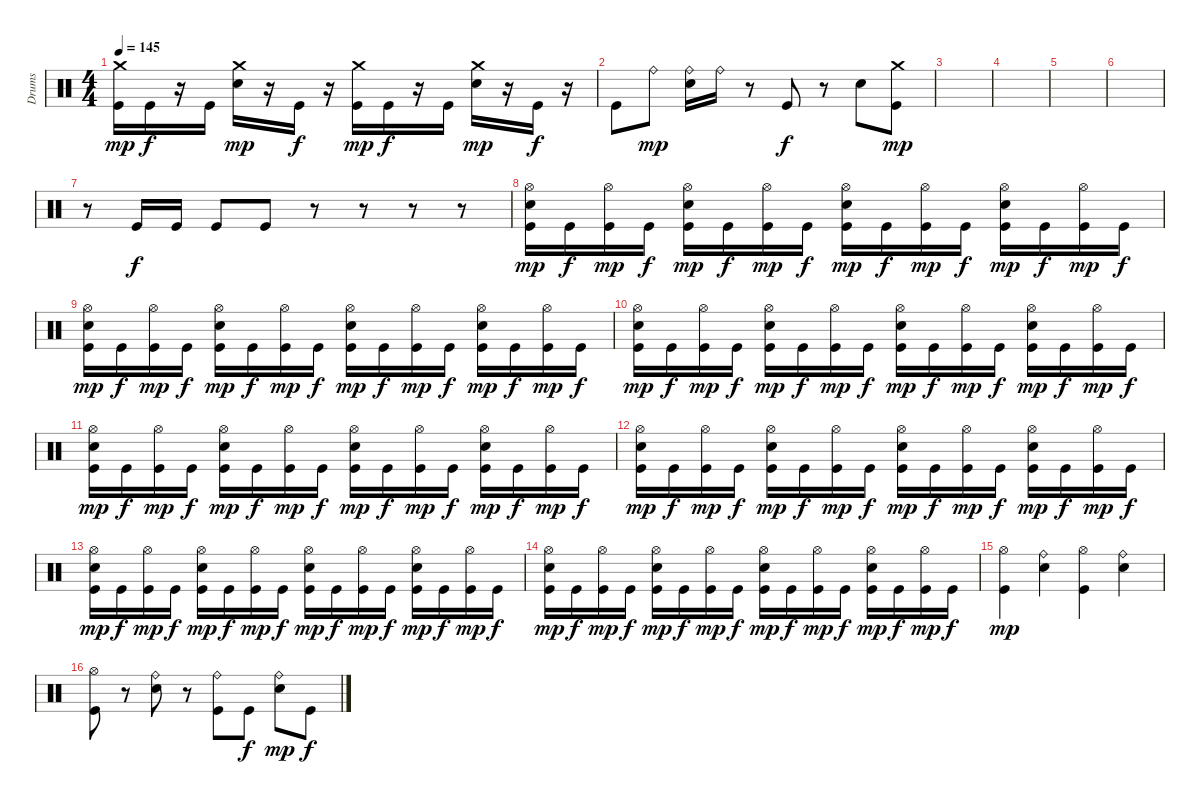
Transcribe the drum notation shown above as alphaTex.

\track ("Drums" "Drums") {instrument percussion}
\staff {score}
\articulation defaults
\ts (4 4)
\tempo 145
\clef neutral
\ks c
("Kick (hit)" "Crash medium (hit)").16{dy mp} "Kick (hit)".16{dy f} r.16 "Kick (hit)".16 ("Snare (hit) 2" "Crash medium (hit)").16{dy mp} r.16 "Kick (hit)".16{dy f} r.16 ("Kick (hit)" "Crash medium (hit)").16{dy mp} "Kick (hit)".16{dy f} r.16 "Kick (hit)".16 ("Snare (hit) 2" "Crash medium (hit)").16{dy mp} r.16 "Kick (hit)".16{dy f} r.16 |
"Kick (hit)".8 "Ride (bell)".8{dy mp} ("Snare (hit) 2" "Ride (bell)").16 "Ride (bell)".16 r.8 "Kick (hit)".8{dy f} r.8 "Snare (hit) 2".8 ("Kick (hit)" "Crash medium (hit)").8{dy mp} |
|
|
|
|
r.8 "Kick (hit)".16{dy f} "Kick (hit)".16 "Kick (hit)".8 "Kick (hit)".8 r.8 r.8 r.8 r.8 |
("Hi-Hat (open)" "Snare (hit) 2" "Kick (hit)").16{dy mp} "Kick (hit)".16{dy f} ("Kick (hit)" "Hi-Hat (open)").16{dy mp} "Kick (hit)".16{dy f} ("Hi-Hat (open)" "Snare (hit) 2" "Kick (hit)").16{dy mp} "Kick (hit)".16{dy f} ("Kick (hit)" "Hi-Hat (open)").16{dy mp} "Kick (hit)".16{dy f} ("Hi-Hat (open)" "Snare (hit) 2" "Kick (hit)").16{dy mp} "Kick (hit)".16{dy f} ("Kick (hit)" "Hi-Hat (open)").16{dy mp} "Kick (hit)".16{dy f} ("Hi-Hat (open)" "Snare (hit) 2" "Kick (hit)").16{dy mp} "Kick (hit)".16{dy f} ("Kick (hit)" "Hi-Hat (open)").16{dy mp} "Kick (hit)".16{dy f} |
("Hi-Hat (open)" "Snare (hit) 2" "Kick (hit)").16{dy mp} "Kick (hit)".16{dy f} ("Kick (hit)" "Hi-Hat (open)").16{dy mp} "Kick (hit)".16{dy f} ("Hi-Hat (open)" "Snare (hit) 2" "Kick (hit)").16{dy mp} "Kick (hit)".16{dy f} ("Kick (hit)" "Hi-Hat (open)").16{dy mp} "Kick (hit)".16{dy f} ("Hi-Hat (open)" "Snare (hit) 2" "Kick (hit)").16{dy mp} "Kick (hit)".16{dy f} ("Kick (hit)" "Hi-Hat (open)").16{dy mp} "Kick (hit)".16{dy f} ("Hi-Hat (open)" "Snare (hit) 2" "Kick (hit)").16{dy mp} "Kick (hit)".16{dy f} ("Kick (hit)" "Hi-Hat (open)").16{dy mp} "Kick (hit)".16{dy f} |
("Hi-Hat (open)" "Snare (hit) 2" "Kick (hit)").16{dy mp} "Kick (hit)".16{dy f} ("Kick (hit)" "Hi-Hat (open)").16{dy mp} "Kick (hit)".16{dy f} ("Hi-Hat (open)" "Snare (hit) 2" "Kick (hit)").16{dy mp} "Kick (hit)".16{dy f} ("Kick (hit)" "Hi-Hat (open)").16{dy mp} "Kick (hit)".16{dy f} ("Hi-Hat (open)" "Snare (hit) 2" "Kick (hit)").16{dy mp} "Kick (hit)".16{dy f} ("Kick (hit)" "Hi-Hat (open)").16{dy mp} "Kick (hit)".16{dy f} ("Hi-Hat (open)" "Snare (hit) 2" "Kick (hit)").16{dy mp} "Kick (hit)".16{dy f} ("Kick (hit)" "Hi-Hat (open)").16{dy mp} "Kick (hit)".16{dy f} |
("Hi-Hat (open)" "Snare (hit) 2" "Kick (hit)").16{dy mp} "Kick (hit)".16{dy f} ("Kick (hit)" "Hi-Hat (open)").16{dy mp} "Kick (hit)".16{dy f} ("Hi-Hat (open)" "Snare (hit) 2" "Kick (hit)").16{dy mp} "Kick (hit)".16{dy f} ("Kick (hit)" "Hi-Hat (open)").16{dy mp} "Kick (hit)".16{dy f} ("Hi-Hat (open)" "Snare (hit) 2" "Kick (hit)").16{dy mp} "Kick (hit)".16{dy f} ("Kick (hit)" "Hi-Hat (open)").16{dy mp} "Kick (hit)".16{dy f} ("Hi-Hat (open)" "Snare (hit) 2" "Kick (hit)").16{dy mp} "Kick (hit)".16{dy f} ("Kick (hit)" "Hi-Hat (open)").16{dy mp} "Kick (hit)".16{dy f} |
("Hi-Hat (open)" "Snare (hit) 2" "Kick (hit)").16{dy mp} "Kick (hit)".16{dy f} ("Kick (hit)" "Hi-Hat (open)").16{dy mp} "Kick (hit)".16{dy f} ("Hi-Hat (open)" "Snare (hit) 2" "Kick (hit)").16{dy mp} "Kick (hit)".16{dy f} ("Kick (hit)" "Hi-Hat (open)").16{dy mp} "Kick (hit)".16{dy f} ("Hi-Hat (open)" "Snare (hit) 2" "Kick (hit)").16{dy mp} "Kick (hit)".16{dy f} ("Kick (hit)" "Hi-Hat (open)").16{dy mp} "Kick (hit)".16{dy f} ("Hi-Hat (open)" "Snare (hit) 2" "Kick (hit)").16{dy mp} "Kick (hit)".16{dy f} ("Kick (hit)" "Hi-Hat (open)").16{dy mp} "Kick (hit)".16{dy f} |
("Hi-Hat (open)" "Snare (hit) 2" "Kick (hit)").16{dy mp} "Kick (hit)".16{dy f} ("Kick (hit)" "Hi-Hat (open)").16{dy mp} "Kick (hit)".16{dy f} ("Hi-Hat (open)" "Snare (hit) 2" "Kick (hit)").16{dy mp} "Kick (hit)".16{dy f} ("Kick (hit)" "Hi-Hat (open)").16{dy mp} "Kick (hit)".16{dy f} ("Hi-Hat (open)" "Snare (hit) 2" "Kick (hit)").16{dy mp} "Kick (hit)".16{dy f} ("Kick (hit)" "Hi-Hat (open)").16{dy mp} "Kick (hit)".16{dy f} ("Hi-Hat (open)" "Snare (hit) 2" "Kick (hit)").16{dy mp} "Kick (hit)".16{dy f} ("Kick (hit)" "Hi-Hat (open)").16{dy mp} "Kick (hit)".16{dy f} |
("Hi-Hat (open)" "Snare (hit) 2" "Kick (hit)").16{dy mp} "Kick (hit)".16{dy f} ("Kick (hit)" "Hi-Hat (open)").16{dy mp} "Kick (hit)".16{dy f} ("Hi-Hat (open)" "Snare (hit) 2" "Kick (hit)").16{dy mp} "Kick (hit)".16{dy f} ("Kick (hit)" "Hi-Hat (open)").16{dy mp} "Kick (hit)".16{dy f} ("Hi-Hat (open)" "Snare (hit) 2" "Kick (hit)").16{dy mp} "Kick (hit)".16{dy f} ("Kick (hit)" "Hi-Hat (open)").16{dy mp} "Kick (hit)".16{dy f} ("Hi-Hat (open)" "Snare (hit) 2" "Kick (hit)").16{dy mp} "Kick (hit)".16{dy f} ("Kick (hit)" "Hi-Hat (open)").16{dy mp} "Kick (hit)".16{dy f} |
("Kick (hit)" "Hi-Hat (open)").4{dy mp} ("Snare (hit) 2" "Ride (bell)").4 ("Kick (hit)" "Hi-Hat (open)").4 ("Snare (hit) 2" "Ride (bell)").4 |
("Kick (hit)" "Hi-Hat (open)").8 r.8 ("Snare (hit) 2" "Ride (bell)").8 r.8 ("Kick (hit)" "Ride (bell)").8 "Kick (hit)".8{dy f} ("Snare (hit) 2" "Ride (bell)").8{dy mp} "Kick (hit)".8{dy f}
